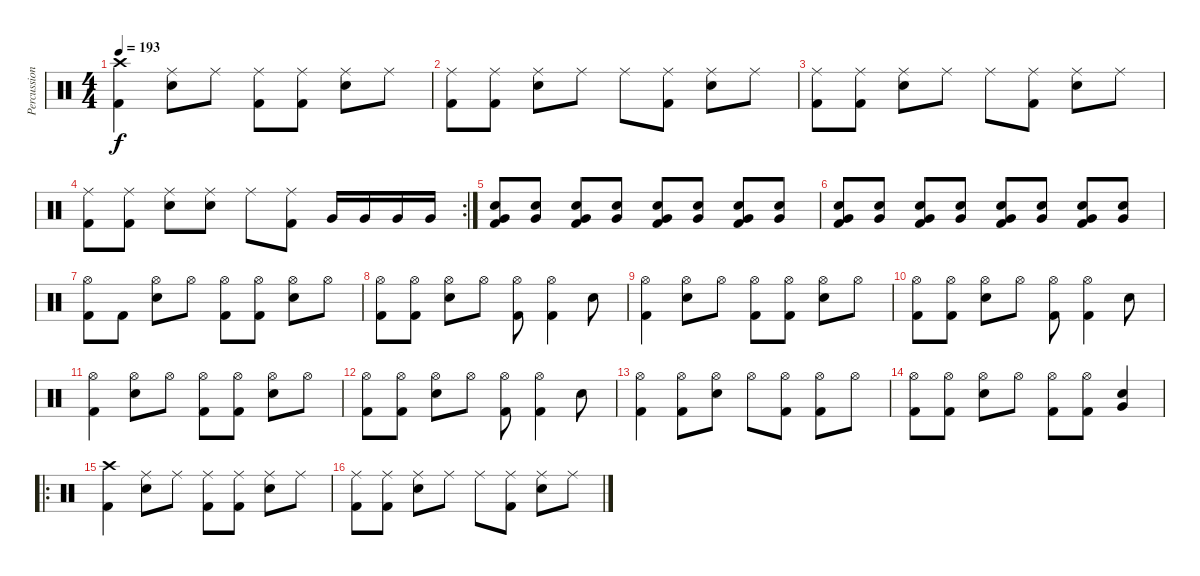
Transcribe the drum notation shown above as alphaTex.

\track ("Percussion" "Percussion") {instrument percussion}
\staff {score}
\articulation defaults
\ts (4 4)
\tempo 193
\clef neutral
\ks c
("Crash high (hit)" "Kick (hit) 2").4{dy f} ("Ride (middle)" "Snare (hit) 2").8 "Ride (middle)".8 ("Ride (middle)" "Kick (hit) 2").8 ("Ride (middle)" "Kick (hit) 2").8 ("Ride (middle)" "Snare (hit) 2").8 "Ride (middle)".8 |
("Ride (middle)" "Kick (hit) 2").8 ("Ride (middle)" "Kick (hit) 2").8 ("Ride (middle)" "Snare (hit) 2").8 "Ride (middle)".8 "Ride (middle)".8 ("Ride (middle)" "Kick (hit) 2").8 ("Ride (middle)" "Snare (hit) 2").8 "Ride (middle)".8 |
("Ride (middle)" "Kick (hit) 2").8 ("Ride (middle)" "Kick (hit) 2").8 ("Ride (middle)" "Snare (hit) 2").8 "Ride (middle)".8 "Ride (middle)".8 ("Ride (middle)" "Kick (hit) 2").8 ("Ride (middle)" "Snare (hit) 2").8 "Ride (middle)".8 |
\rc 2
("Ride (middle)" "Kick (hit) 2").8 ("Ride (middle)" "Kick (hit) 2").8 ("Ride (middle)" "Snare (hit) 2").8 ("Ride (middle)" "Snare (hit) 2").8 "Ride (middle)".8 ("Ride (middle)" "Kick (hit) 2").8 "Very Low Tom (hit)".16 "Very Low Tom (hit)".16 "Very Low Tom (hit)".16 "Very Low Tom (hit)".16 |
("Snare (hit) 2" "Very Low Tom (hit)" "Kick (hit) 2").8 ("Snare (hit) 2" "Very Low Tom (hit)").8 ("Snare (hit) 2" "Very Low Tom (hit)" "Kick (hit) 2").8 ("Snare (hit) 2" "Very Low Tom (hit)").8 ("Snare (hit) 2" "Very Low Tom (hit)" "Kick (hit) 2").8 ("Snare (hit) 2" "Very Low Tom (hit)").8 ("Snare (hit) 2" "Very Low Tom (hit)" "Kick (hit) 2").8 ("Snare (hit) 2" "Very Low Tom (hit)").8 |
("Snare (hit) 2" "Very Low Tom (hit)" "Kick (hit) 2").8 ("Snare (hit) 2" "Very Low Tom (hit)").8 ("Snare (hit) 2" "Very Low Tom (hit)" "Kick (hit) 2").8 ("Snare (hit) 2" "Very Low Tom (hit)").8 ("Snare (hit) 2" "Very Low Tom (hit)" "Kick (hit) 2").8 ("Snare (hit) 2" "Very Low Tom (hit)").8 ("Snare (hit) 2" "Very Low Tom (hit)" "Kick (hit) 2").8 ("Snare (hit) 2" "Very Low Tom (hit)").8 |
("Hi-Hat (open)" "Kick (hit) 2").8 "Kick (hit) 2".8 ("Hi-Hat (open)" "Snare (hit) 2").8 "Hi-Hat (open)".8 ("Hi-Hat (open)" "Kick (hit) 2").8 ("Hi-Hat (open)" "Kick (hit) 2").8 ("Hi-Hat (open)" "Snare (hit) 2").8 "Hi-Hat (open)".8 |
("Hi-Hat (open)" "Kick (hit) 2").8 ("Hi-Hat (open)" "Kick (hit) 2").8 ("Hi-Hat (open)" "Snare (hit) 2").8 "Hi-Hat (open)".8 ("Hi-Hat (open)" "Kick (hit) 2").8 ("Hi-Hat (open)" "Kick (hit) 2").4 "Snare (hit) 2".8 |
("Hi-Hat (open)" "Kick (hit) 2").4 ("Hi-Hat (open)" "Snare (hit) 2").8 "Hi-Hat (open)".8 ("Hi-Hat (open)" "Kick (hit) 2").8 ("Hi-Hat (open)" "Kick (hit) 2").8 ("Hi-Hat (open)" "Snare (hit) 2").8 "Hi-Hat (open)".8 |
("Hi-Hat (open)" "Kick (hit) 2").8 ("Hi-Hat (open)" "Kick (hit) 2").8 ("Hi-Hat (open)" "Snare (hit) 2").8 "Hi-Hat (open)".8 ("Hi-Hat (open)" "Kick (hit) 2").8 ("Hi-Hat (open)" "Kick (hit) 2").4 "Snare (hit) 2".8 |
("Hi-Hat (open)" "Kick (hit) 2").4 ("Hi-Hat (open)" "Snare (hit) 2").8 "Hi-Hat (open)".8 ("Hi-Hat (open)" "Kick (hit) 2").8 ("Hi-Hat (open)" "Kick (hit) 2").8 ("Hi-Hat (open)" "Snare (hit) 2").8 "Hi-Hat (open)".8 |
("Hi-Hat (open)" "Kick (hit) 2").8 ("Hi-Hat (open)" "Kick (hit) 2").8 ("Hi-Hat (open)" "Snare (hit) 2").8 "Hi-Hat (open)".8 ("Hi-Hat (open)" "Kick (hit) 2").8 ("Hi-Hat (open)" "Kick (hit) 2").4 "Snare (hit) 2".8 |
("Hi-Hat (open)" "Kick (hit) 2").4 ("Hi-Hat (open)" "Kick (hit) 2").8 ("Hi-Hat (open)" "Snare (hit) 2").8 "Hi-Hat (open)".8 ("Hi-Hat (open)" "Kick (hit) 2").8 ("Hi-Hat (open)" "Kick (hit) 2").8 "Hi-Hat (open)".8 |
("Hi-Hat (open)" "Kick (hit) 2").8 ("Hi-Hat (open)" "Kick (hit) 2").8 ("Hi-Hat (open)" "Snare (hit) 2").8 "Hi-Hat (open)".8 ("Hi-Hat (open)" "Kick (hit) 2").8 ("Hi-Hat (open)" "Kick (hit) 2").8 ("Snare (hit) 2" "Very Low Tom (hit)").4 |
\ro
("Crash high (hit)" "Kick (hit) 2").4 ("Ride (middle)" "Snare (hit) 2").8 "Ride (middle)".8 ("Ride (middle)" "Kick (hit) 2").8 ("Ride (middle)" "Kick (hit) 2").8 ("Ride (middle)" "Snare (hit) 2").8 "Ride (middle)".8 |
("Ride (middle)" "Kick (hit) 2").8 ("Ride (middle)" "Kick (hit) 2").8 ("Ride (middle)" "Snare (hit) 2").8 "Ride (middle)".8 "Ride (middle)".8 ("Ride (middle)" "Kick (hit) 2").8 ("Ride (middle)" "Snare (hit) 2").8 "Ride (middle)".8
